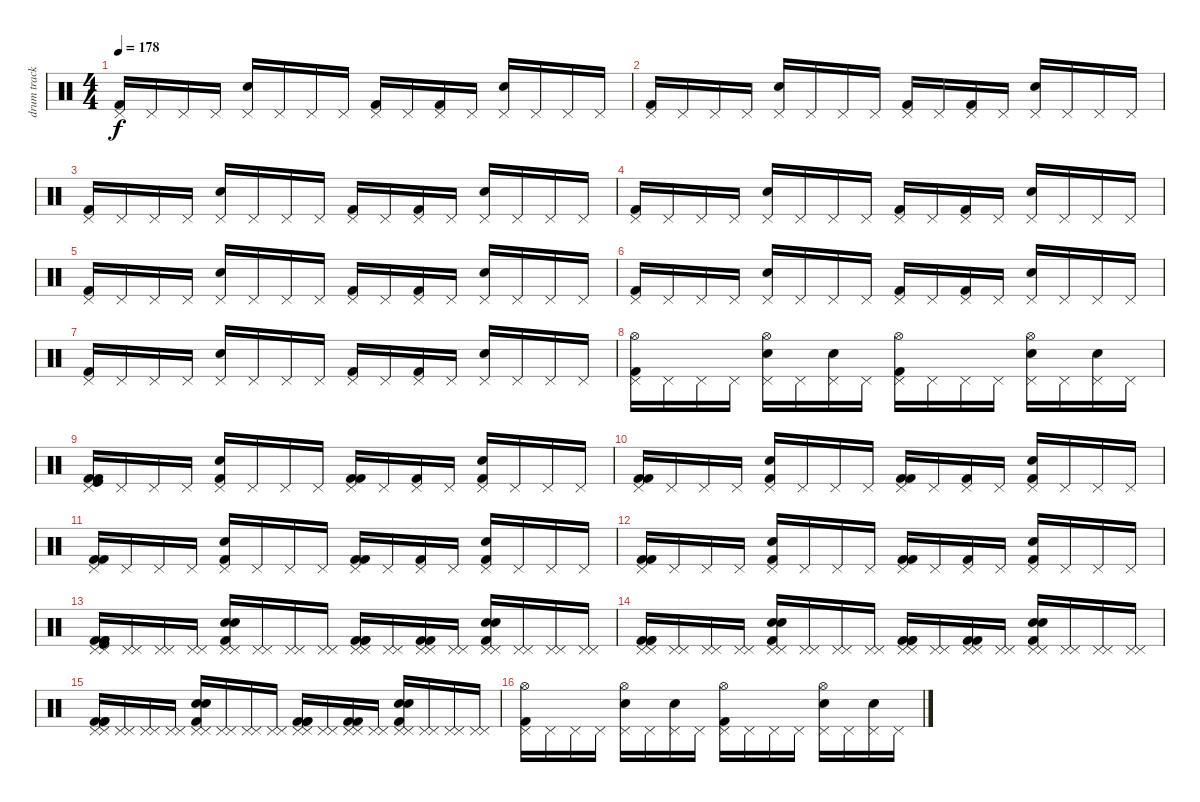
\track ("drum track" "drum track") {instrument percussion}
\staff {score}
\articulation defaults
\ts (4 4)
\tempo 178
\clef neutral
\ks c
("Kick (hit) 2" "Pedal Hi-Hat (hit)").16{dy f} "Pedal Hi-Hat (hit)".16 "Pedal Hi-Hat (hit)".16 "Pedal Hi-Hat (hit)".16 ("Snare (hit) 2" "Pedal Hi-Hat (hit)").16 "Pedal Hi-Hat (hit)".16 "Pedal Hi-Hat (hit)".16 "Pedal Hi-Hat (hit)".16 ("Kick (hit) 2" "Pedal Hi-Hat (hit)").16 "Pedal Hi-Hat (hit)".16 ("Kick (hit) 2" "Pedal Hi-Hat (hit)").16 "Pedal Hi-Hat (hit)".16 ("Snare (hit) 2" "Pedal Hi-Hat (hit)").16 "Pedal Hi-Hat (hit)".16 "Pedal Hi-Hat (hit)".16 "Pedal Hi-Hat (hit)".16 |
("Kick (hit) 2" "Pedal Hi-Hat (hit)").16 "Pedal Hi-Hat (hit)".16 "Pedal Hi-Hat (hit)".16 "Pedal Hi-Hat (hit)".16 ("Snare (hit) 2" "Pedal Hi-Hat (hit)").16 "Pedal Hi-Hat (hit)".16 "Pedal Hi-Hat (hit)".16 "Pedal Hi-Hat (hit)".16 ("Kick (hit) 2" "Pedal Hi-Hat (hit)").16 "Pedal Hi-Hat (hit)".16 ("Kick (hit) 2" "Pedal Hi-Hat (hit)").16 "Pedal Hi-Hat (hit)".16 ("Snare (hit) 2" "Pedal Hi-Hat (hit)").16 "Pedal Hi-Hat (hit)".16 "Pedal Hi-Hat (hit)".16 "Pedal Hi-Hat (hit)".16 |
("Kick (hit) 2" "Pedal Hi-Hat (hit)").16 "Pedal Hi-Hat (hit)".16 "Pedal Hi-Hat (hit)".16 "Pedal Hi-Hat (hit)".16 ("Snare (hit) 2" "Pedal Hi-Hat (hit)").16 "Pedal Hi-Hat (hit)".16 "Pedal Hi-Hat (hit)".16 "Pedal Hi-Hat (hit)".16 ("Kick (hit) 2" "Pedal Hi-Hat (hit)").16 "Pedal Hi-Hat (hit)".16 ("Kick (hit) 2" "Pedal Hi-Hat (hit)").16 "Pedal Hi-Hat (hit)".16 ("Snare (hit) 2" "Pedal Hi-Hat (hit)").16 "Pedal Hi-Hat (hit)".16 "Pedal Hi-Hat (hit)".16 "Pedal Hi-Hat (hit)".16 |
("Kick (hit) 2" "Pedal Hi-Hat (hit)").16 "Pedal Hi-Hat (hit)".16 "Pedal Hi-Hat (hit)".16 "Pedal Hi-Hat (hit)".16 ("Snare (hit) 2" "Pedal Hi-Hat (hit)").16 "Pedal Hi-Hat (hit)".16 "Pedal Hi-Hat (hit)".16 "Pedal Hi-Hat (hit)".16 ("Kick (hit) 2" "Pedal Hi-Hat (hit)").16 "Pedal Hi-Hat (hit)".16 ("Kick (hit) 2" "Pedal Hi-Hat (hit)").16 "Pedal Hi-Hat (hit)".16 ("Snare (hit) 2" "Pedal Hi-Hat (hit)").16 "Pedal Hi-Hat (hit)".16 "Pedal Hi-Hat (hit)".16 "Pedal Hi-Hat (hit)".16 |
("Kick (hit) 2" "Pedal Hi-Hat (hit)").16 "Pedal Hi-Hat (hit)".16 "Pedal Hi-Hat (hit)".16 "Pedal Hi-Hat (hit)".16 ("Snare (hit) 2" "Pedal Hi-Hat (hit)").16 "Pedal Hi-Hat (hit)".16 "Pedal Hi-Hat (hit)".16 "Pedal Hi-Hat (hit)".16 ("Kick (hit) 2" "Pedal Hi-Hat (hit)").16 "Pedal Hi-Hat (hit)".16 ("Kick (hit) 2" "Pedal Hi-Hat (hit)").16 "Pedal Hi-Hat (hit)".16 ("Snare (hit) 2" "Pedal Hi-Hat (hit)").16 "Pedal Hi-Hat (hit)".16 "Pedal Hi-Hat (hit)".16 "Pedal Hi-Hat (hit)".16 |
("Kick (hit) 2" "Pedal Hi-Hat (hit)").16 "Pedal Hi-Hat (hit)".16 "Pedal Hi-Hat (hit)".16 "Pedal Hi-Hat (hit)".16 ("Snare (hit) 2" "Pedal Hi-Hat (hit)").16 "Pedal Hi-Hat (hit)".16 "Pedal Hi-Hat (hit)".16 "Pedal Hi-Hat (hit)".16 ("Kick (hit) 2" "Pedal Hi-Hat (hit)").16 "Pedal Hi-Hat (hit)".16 ("Kick (hit) 2" "Pedal Hi-Hat (hit)").16 "Pedal Hi-Hat (hit)".16 ("Snare (hit) 2" "Pedal Hi-Hat (hit)").16 "Pedal Hi-Hat (hit)".16 "Pedal Hi-Hat (hit)".16 "Pedal Hi-Hat (hit)".16 |
("Kick (hit) 2" "Pedal Hi-Hat (hit)").16 "Pedal Hi-Hat (hit)".16 "Pedal Hi-Hat (hit)".16 "Pedal Hi-Hat (hit)".16 ("Snare (hit) 2" "Pedal Hi-Hat (hit)").16 "Pedal Hi-Hat (hit)".16 "Pedal Hi-Hat (hit)".16 "Pedal Hi-Hat (hit)".16 ("Kick (hit) 2" "Pedal Hi-Hat (hit)").16 "Pedal Hi-Hat (hit)".16 ("Kick (hit) 2" "Pedal Hi-Hat (hit)").16 "Pedal Hi-Hat (hit)".16 ("Snare (hit) 2" "Pedal Hi-Hat (hit)").16 "Pedal Hi-Hat (hit)".16 "Pedal Hi-Hat (hit)".16 "Pedal Hi-Hat (hit)".16 |
("Kick (hit) 2" "Pedal Hi-Hat (hit)" "Hi-Hat (open)").16 "Pedal Hi-Hat (hit)".16 "Pedal Hi-Hat (hit)".16 "Pedal Hi-Hat (hit)".16 ("Snare (hit) 2" "Pedal Hi-Hat (hit)" "Hi-Hat (open)").16 "Pedal Hi-Hat (hit)".16 ("Snare (hit) 2" "Pedal Hi-Hat (hit)").16 "Pedal Hi-Hat (hit)".16 ("Kick (hit) 2" "Pedal Hi-Hat (hit)" "Hi-Hat (open)").16 "Pedal Hi-Hat (hit)".16 "Pedal Hi-Hat (hit)".16 "Pedal Hi-Hat (hit)".16 ("Snare (hit) 2" "Pedal Hi-Hat (hit)" "Hi-Hat (open)").16 "Pedal Hi-Hat (hit)".16 ("Snare (hit) 2" "Pedal Hi-Hat (hit)").16 "Pedal Hi-Hat (hit)".16 |
("Kick (hit) 2" "Pedal Hi-Hat (hit)" "Kick (hit) 2" "Kick (hit)").16 "Pedal Hi-Hat (hit)".16 "Pedal Hi-Hat (hit)".16 "Pedal Hi-Hat (hit)".16 ("Snare (hit) 2" "Pedal Hi-Hat (hit)" "Kick (hit) 2").16 "Pedal Hi-Hat (hit)".16 "Pedal Hi-Hat (hit)".16 "Pedal Hi-Hat (hit)".16 ("Kick (hit) 2" "Pedal Hi-Hat (hit)" "Kick (hit) 2").16 "Pedal Hi-Hat (hit)".16 ("Kick (hit) 2" "Pedal Hi-Hat (hit)").16 "Pedal Hi-Hat (hit)".16 ("Snare (hit) 2" "Pedal Hi-Hat (hit)" "Kick (hit) 2").16 "Pedal Hi-Hat (hit)".16 "Pedal Hi-Hat (hit)".16 "Pedal Hi-Hat (hit)".16 |
("Kick (hit) 2" "Pedal Hi-Hat (hit)" "Kick (hit) 2").16 "Pedal Hi-Hat (hit)".16 "Pedal Hi-Hat (hit)".16 "Pedal Hi-Hat (hit)".16 ("Snare (hit) 2" "Pedal Hi-Hat (hit)" "Kick (hit) 2").16 "Pedal Hi-Hat (hit)".16 "Pedal Hi-Hat (hit)".16 "Pedal Hi-Hat (hit)".16 ("Kick (hit) 2" "Pedal Hi-Hat (hit)" "Kick (hit) 2").16 "Pedal Hi-Hat (hit)".16 ("Kick (hit) 2" "Pedal Hi-Hat (hit)").16 "Pedal Hi-Hat (hit)".16 ("Snare (hit) 2" "Pedal Hi-Hat (hit)" "Kick (hit) 2").16 "Pedal Hi-Hat (hit)".16 "Pedal Hi-Hat (hit)".16 "Pedal Hi-Hat (hit)".16 |
("Kick (hit) 2" "Pedal Hi-Hat (hit)" "Kick (hit) 2").16 "Pedal Hi-Hat (hit)".16 "Pedal Hi-Hat (hit)".16 "Pedal Hi-Hat (hit)".16 ("Snare (hit) 2" "Pedal Hi-Hat (hit)" "Kick (hit) 2").16 "Pedal Hi-Hat (hit)".16 "Pedal Hi-Hat (hit)".16 "Pedal Hi-Hat (hit)".16 ("Kick (hit) 2" "Pedal Hi-Hat (hit)" "Kick (hit) 2").16 "Pedal Hi-Hat (hit)".16 ("Kick (hit) 2" "Pedal Hi-Hat (hit)").16 "Pedal Hi-Hat (hit)".16 ("Snare (hit) 2" "Pedal Hi-Hat (hit)" "Kick (hit) 2").16 "Pedal Hi-Hat (hit)".16 "Pedal Hi-Hat (hit)".16 "Pedal Hi-Hat (hit)".16 |
("Kick (hit) 2" "Pedal Hi-Hat (hit)" "Kick (hit) 2").16 "Pedal Hi-Hat (hit)".16 "Pedal Hi-Hat (hit)".16 "Pedal Hi-Hat (hit)".16 ("Snare (hit) 2" "Pedal Hi-Hat (hit)" "Kick (hit) 2").16 "Pedal Hi-Hat (hit)".16 "Pedal Hi-Hat (hit)".16 "Pedal Hi-Hat (hit)".16 ("Kick (hit) 2" "Pedal Hi-Hat (hit)" "Kick (hit) 2").16 "Pedal Hi-Hat (hit)".16 ("Kick (hit) 2" "Pedal Hi-Hat (hit)").16 "Pedal Hi-Hat (hit)".16 ("Snare (hit) 2" "Pedal Hi-Hat (hit)" "Kick (hit) 2").16 "Pedal Hi-Hat (hit)".16 "Pedal Hi-Hat (hit)".16 "Pedal Hi-Hat (hit)".16 |
("Kick (hit) 2" "Pedal Hi-Hat (hit)" "Kick (hit) 2" "Pedal Hi-Hat (hit)" "Kick (hit) 2" "Kick (hit)").16 ("Pedal Hi-Hat (hit)" "Pedal Hi-Hat (hit)").16 ("Pedal Hi-Hat (hit)" "Pedal Hi-Hat (hit)").16 ("Pedal Hi-Hat (hit)" "Pedal Hi-Hat (hit)").16 ("Snare (hit) 2" "Pedal Hi-Hat (hit)" "Snare (hit) 2" "Pedal Hi-Hat (hit)" "Kick (hit) 2").16 ("Pedal Hi-Hat (hit)" "Pedal Hi-Hat (hit)").16 ("Pedal Hi-Hat (hit)" "Pedal Hi-Hat (hit)").16 ("Pedal Hi-Hat (hit)" "Pedal Hi-Hat (hit)").16 ("Kick (hit) 2" "Pedal Hi-Hat (hit)" "Kick (hit) 2" "Pedal Hi-Hat (hit)" "Kick (hit) 2").16 ("Pedal Hi-Hat (hit)" "Pedal Hi-Hat (hit)").16 ("Kick (hit) 2" "Pedal Hi-Hat (hit)" "Kick (hit) 2" "Pedal Hi-Hat (hit)").16 ("Pedal Hi-Hat (hit)" "Pedal Hi-Hat (hit)").16 ("Snare (hit) 2" "Pedal Hi-Hat (hit)" "Snare (hit) 2" "Pedal Hi-Hat (hit)" "Kick (hit) 2").16 ("Pedal Hi-Hat (hit)" "Pedal Hi-Hat (hit)").16 ("Pedal Hi-Hat (hit)" "Pedal Hi-Hat (hit)").16 ("Pedal Hi-Hat (hit)" "Pedal Hi-Hat (hit)").16 |
("Kick (hit) 2" "Pedal Hi-Hat (hit)" "Kick (hit) 2" "Pedal Hi-Hat (hit)" "Kick (hit) 2").16 ("Pedal Hi-Hat (hit)" "Pedal Hi-Hat (hit)").16 ("Pedal Hi-Hat (hit)" "Pedal Hi-Hat (hit)").16 ("Pedal Hi-Hat (hit)" "Pedal Hi-Hat (hit)").16 ("Snare (hit) 2" "Pedal Hi-Hat (hit)" "Snare (hit) 2" "Pedal Hi-Hat (hit)" "Kick (hit) 2").16 ("Pedal Hi-Hat (hit)" "Pedal Hi-Hat (hit)").16 ("Pedal Hi-Hat (hit)" "Pedal Hi-Hat (hit)").16 ("Pedal Hi-Hat (hit)" "Pedal Hi-Hat (hit)").16 ("Kick (hit) 2" "Pedal Hi-Hat (hit)" "Kick (hit) 2" "Pedal Hi-Hat (hit)" "Kick (hit) 2").16 ("Pedal Hi-Hat (hit)" "Pedal Hi-Hat (hit)").16 ("Kick (hit) 2" "Pedal Hi-Hat (hit)" "Kick (hit) 2" "Pedal Hi-Hat (hit)").16 ("Pedal Hi-Hat (hit)" "Pedal Hi-Hat (hit)").16 ("Snare (hit) 2" "Pedal Hi-Hat (hit)" "Snare (hit) 2" "Pedal Hi-Hat (hit)" "Kick (hit) 2").16 ("Pedal Hi-Hat (hit)" "Pedal Hi-Hat (hit)").16 ("Pedal Hi-Hat (hit)" "Pedal Hi-Hat (hit)").16 ("Pedal Hi-Hat (hit)" "Pedal Hi-Hat (hit)").16 |
("Kick (hit) 2" "Pedal Hi-Hat (hit)" "Kick (hit) 2" "Pedal Hi-Hat (hit)" "Kick (hit) 2").16 ("Pedal Hi-Hat (hit)" "Pedal Hi-Hat (hit)").16 ("Pedal Hi-Hat (hit)" "Pedal Hi-Hat (hit)").16 ("Pedal Hi-Hat (hit)" "Pedal Hi-Hat (hit)").16 ("Snare (hit) 2" "Pedal Hi-Hat (hit)" "Snare (hit) 2" "Pedal Hi-Hat (hit)" "Kick (hit) 2").16 ("Pedal Hi-Hat (hit)" "Pedal Hi-Hat (hit)").16 ("Pedal Hi-Hat (hit)" "Pedal Hi-Hat (hit)").16 ("Pedal Hi-Hat (hit)" "Pedal Hi-Hat (hit)").16 ("Kick (hit) 2" "Pedal Hi-Hat (hit)" "Kick (hit) 2" "Pedal Hi-Hat (hit)" "Kick (hit) 2").16 ("Pedal Hi-Hat (hit)" "Pedal Hi-Hat (hit)").16 ("Kick (hit) 2" "Pedal Hi-Hat (hit)" "Kick (hit) 2" "Pedal Hi-Hat (hit)").16 ("Pedal Hi-Hat (hit)" "Pedal Hi-Hat (hit)").16 ("Snare (hit) 2" "Pedal Hi-Hat (hit)" "Snare (hit) 2" "Pedal Hi-Hat (hit)" "Kick (hit) 2").16 ("Pedal Hi-Hat (hit)" "Pedal Hi-Hat (hit)").16 ("Pedal Hi-Hat (hit)" "Pedal Hi-Hat (hit)").16 ("Pedal Hi-Hat (hit)" "Pedal Hi-Hat (hit)").16 |
("Kick (hit) 2" "Pedal Hi-Hat (hit)" "Hi-Hat (open)").16 "Pedal Hi-Hat (hit)".16 "Pedal Hi-Hat (hit)".16 "Pedal Hi-Hat (hit)".16 ("Snare (hit) 2" "Pedal Hi-Hat (hit)" "Hi-Hat (open)").16 "Pedal Hi-Hat (hit)".16 ("Snare (hit) 2" "Pedal Hi-Hat (hit)").16 "Pedal Hi-Hat (hit)".16 ("Kick (hit) 2" "Pedal Hi-Hat (hit)" "Hi-Hat (open)").16 "Pedal Hi-Hat (hit)".16 "Pedal Hi-Hat (hit)".16 "Pedal Hi-Hat (hit)".16 ("Snare (hit) 2" "Pedal Hi-Hat (hit)" "Hi-Hat (open)").16 "Pedal Hi-Hat (hit)".16 ("Snare (hit) 2" "Pedal Hi-Hat (hit)").16 "Pedal Hi-Hat (hit)".16
